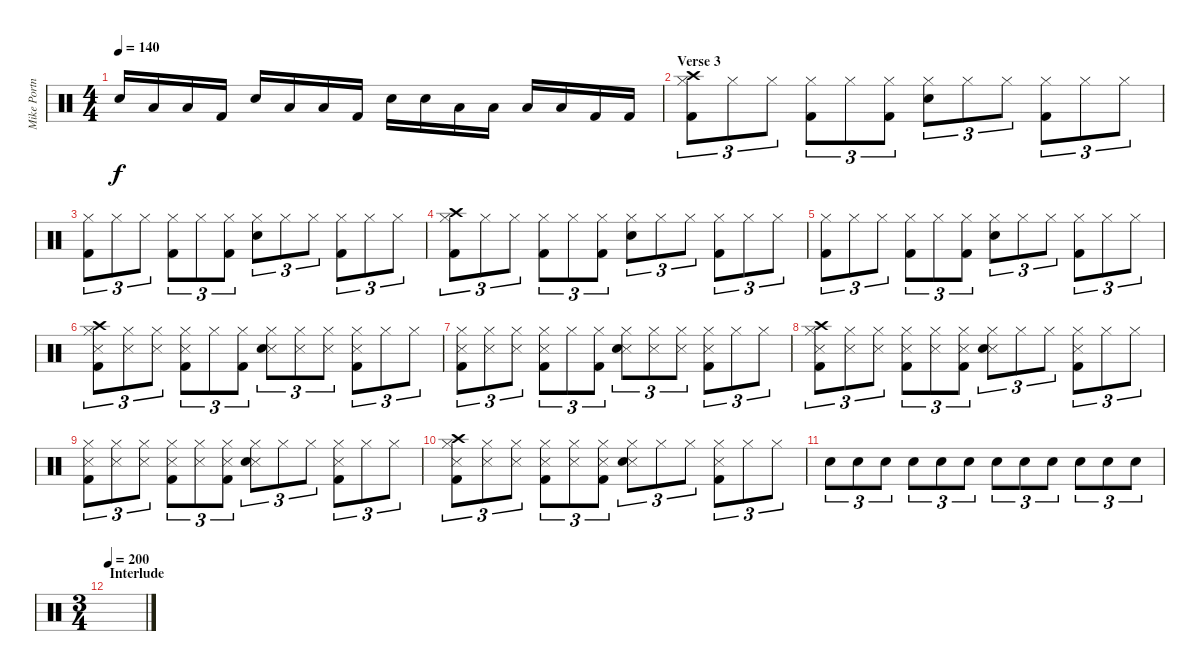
\track ("Mike Portnoy Drums/Percussion" "Mike Portn") {instrument percussion}
\staff {score}
\articulation defaults
\ts (4 4)
\tempo 140
\clef neutral
\ks c "Snare (hit) 2".16{dy f} "Low Tom (hit)".16 "Low Floor Tom (hit)".16 "Kick (hit) 2".16 "Snare (hit) 2".16 "Low Tom (hit)".16 "Low Floor Tom (hit)".16 "Kick (hit) 2".16 "Snare (hit) 2".16 "Snare (hit) 2".16 "Low Tom (hit)".16 "Low Tom (hit)".16 "Low Floor Tom (hit)".16 "Low Floor Tom (hit)".16 "Kick (hit) 2".16 "Kick (hit) 2".16
|
\section ("" "Verse 3")
("Crash high (hit)" "Hi-Hat (closed)" "Kick (hit) 2").8{tu (3 2)} "Hi-Hat (closed)".8{tu (3 2)} "Hi-Hat (closed)".8{tu (3 2)} ("Hi-Hat (closed)" "Kick (hit) 2").8{tu (3 2)} "Hi-Hat (closed)".8{tu (3 2)} ("Hi-Hat (closed)" "Kick (hit) 2").8{tu (3 2)} ("Hi-Hat (closed)" "Snare (hit) 2").8{tu (3 2)} "Hi-Hat (closed)".8{tu (3 2)} "Hi-Hat (closed)".8{tu (3 2)} ("Hi-Hat (closed)" "Kick (hit) 2").8{tu (3 2)} "Hi-Hat (closed)".8{tu (3 2)} "Hi-Hat (closed)".8{tu (3 2)} |
("Hi-Hat (closed)" "Kick (hit) 2").8{tu (3 2)} "Hi-Hat (closed)".8{tu (3 2)} "Hi-Hat (closed)".8{tu (3 2)} ("Hi-Hat (closed)" "Kick (hit) 2").8{tu (3 2)} "Hi-Hat (closed)".8{tu (3 2)} ("Hi-Hat (closed)" "Kick (hit) 2").8{tu (3 2)} ("Hi-Hat (closed)" "Snare (hit) 2").8{tu (3 2)} "Hi-Hat (closed)".8{tu (3 2)} "Hi-Hat (closed)".8{tu (3 2)} ("Hi-Hat (closed)" "Kick (hit) 2").8{tu (3 2)} "Hi-Hat (closed)".8{tu (3 2)} "Hi-Hat (closed)".8{tu (3 2)} |
("Crash high (hit)" "Hi-Hat (closed)" "Kick (hit) 2").8{tu (3 2)} "Hi-Hat (closed)".8{tu (3 2)} "Hi-Hat (closed)".8{tu (3 2)} ("Hi-Hat (closed)" "Kick (hit) 2").8{tu (3 2)} "Hi-Hat (closed)".8{tu (3 2)} ("Hi-Hat (closed)" "Kick (hit) 2").8{tu (3 2)} ("Hi-Hat (closed)" "Snare (hit) 2").8{tu (3 2)} "Hi-Hat (closed)".8{tu (3 2)} "Hi-Hat (closed)".8{tu (3 2)} ("Hi-Hat (closed)" "Kick (hit) 2").8{tu (3 2)} "Hi-Hat (closed)".8{tu (3 2)} "Hi-Hat (closed)".8{tu (3 2)} |
("Hi-Hat (closed)" "Kick (hit) 2").8{tu (3 2)} "Hi-Hat (closed)".8{tu (3 2)} "Hi-Hat (closed)".8{tu (3 2)} ("Hi-Hat (closed)" "Kick (hit) 2").8{tu (3 2)} "Hi-Hat (closed)".8{tu (3 2)} ("Hi-Hat (closed)" "Kick (hit) 2").8{tu (3 2)} ("Hi-Hat (closed)" "Snare (hit) 2").8{tu (3 2)} "Hi-Hat (closed)".8{tu (3 2)} "Hi-Hat (closed)".8{tu (3 2)} ("Hi-Hat (closed)" "Kick (hit) 2").8{tu (3 2)} "Hi-Hat (closed)".8{tu (3 2)} "Hi-Hat (closed)".8{tu (3 2)} |
("Crash high (hit)" "Hi-Hat (closed)" "Snare (side stick) 3" "Kick (hit) 2").8{tu (3 2)} ("Hi-Hat (closed)" "Snare (side stick) 3").8{tu (3 2)} ("Hi-Hat (closed)" "Snare (side stick) 3").8{tu (3 2)} ("Hi-Hat (closed)" "Snare (side stick) 3" "Kick (hit) 2").8{tu (3 2)} "Hi-Hat (closed)".8{tu (3 2)} ("Hi-Hat (closed)" "Kick (hit) 2").8{tu (3 2)} ("Hi-Hat (closed)" "Snare (side stick) 3" "Snare (hit) 2").8{tu (3 2)} ("Hi-Hat (closed)" "Snare (side stick) 3").8{tu (3 2)} ("Hi-Hat (closed)" "Snare (side stick) 3").8{tu (3 2)} ("Hi-Hat (closed)" "Snare (side stick) 3" "Kick (hit) 2").8{tu (3 2)} "Hi-Hat (closed)".8{tu (3 2)} "Hi-Hat (closed)".8{tu (3 2)} |
("Hi-Hat (closed)" "Snare (side stick) 3" "Kick (hit) 2").8{tu (3 2)} ("Hi-Hat (closed)" "Snare (side stick) 3").8{tu (3 2)} ("Hi-Hat (closed)" "Snare (side stick) 3").8{tu (3 2)} ("Hi-Hat (closed)" "Snare (side stick) 3" "Kick (hit) 2").8{tu (3 2)} "Hi-Hat (closed)".8{tu (3 2)} ("Hi-Hat (closed)" "Kick (hit) 2").8{tu (3 2)} ("Hi-Hat (closed)" "Snare (side stick) 3" "Snare (hit) 2").8{tu (3 2)} ("Hi-Hat (closed)" "Snare (side stick) 3").8{tu (3 2)} ("Hi-Hat (closed)" "Snare (side stick) 3").8{tu (3 2)} ("Hi-Hat (closed)" "Snare (side stick) 3" "Kick (hit) 2").8{tu (3 2)} "Hi-Hat (closed)".8{tu (3 2)} "Hi-Hat (closed)".8{tu (3 2)} |
("Crash high (hit)" "Hi-Hat (closed)" "Snare (side stick) 3" "Kick (hit) 2").8{tu (3 2)} ("Hi-Hat (closed)" "Snare (side stick) 3").8{tu (3 2)} ("Hi-Hat (closed)" "Snare (side stick) 3").8{tu (3 2)} ("Hi-Hat (closed)" "Snare (side stick) 3" "Kick (hit) 2").8{tu (3 2)} ("Hi-Hat (closed)" "Snare (side stick) 3").8{tu (3 2)} ("Hi-Hat (closed)" "Snare (side stick) 3" "Kick (hit) 2").8{tu (3 2)} ("Hi-Hat (closed)" "Snare (side stick) 3" "Snare (hit) 2").8{tu (3 2)} "Hi-Hat (closed)".8{tu (3 2)} "Hi-Hat (closed)".8{tu (3 2)} ("Hi-Hat (closed)" "Snare (side stick) 3" "Kick (hit) 2").8{tu (3 2)} "Hi-Hat (closed)".8{tu (3 2)} "Hi-Hat (closed)".8{tu (3 2)} |
("Hi-Hat (closed)" "Snare (side stick) 3" "Kick (hit) 2").8{tu (3 2)} ("Hi-Hat (closed)" "Snare (side stick) 3").8{tu (3 2)} ("Hi-Hat (closed)" "Snare (side stick) 3").8{tu (3 2)} ("Hi-Hat (closed)" "Snare (side stick) 3" "Kick (hit) 2").8{tu (3 2)} ("Hi-Hat (closed)" "Snare (side stick) 3").8{tu (3 2)} ("Hi-Hat (closed)" "Snare (side stick) 3" "Kick (hit) 2").8{tu (3 2)} ("Hi-Hat (closed)" "Snare (side stick) 3" "Snare (hit) 2").8{tu (3 2)} "Hi-Hat (closed)".8{tu (3 2)} "Hi-Hat (closed)".8{tu (3 2)} ("Hi-Hat (closed)" "Snare (side stick) 3" "Kick (hit) 2").8{tu (3 2)} "Hi-Hat (closed)".8{tu (3 2)} "Hi-Hat (closed)".8{tu (3 2)} |
("Crash high (hit)" "Hi-Hat (closed)" "Snare (side stick) 3" "Kick (hit) 2").8{tu (3 2)} ("Hi-Hat (closed)" "Snare (side stick) 3").8{tu (3 2)} ("Hi-Hat (closed)" "Snare (side stick) 3").8{tu (3 2)} ("Hi-Hat (closed)" "Snare (side stick) 3" "Kick (hit) 2").8{tu (3 2)} ("Hi-Hat (closed)" "Snare (side stick) 3").8{tu (3 2)} ("Hi-Hat (closed)" "Snare (side stick) 3" "Kick (hit) 2").8{tu (3 2)} ("Hi-Hat (closed)" "Snare (side stick) 3" "Snare (hit) 2").8{tu (3 2)} "Hi-Hat (closed)".8{tu (3 2)} "Hi-Hat (closed)".8{tu (3 2)} ("Hi-Hat (closed)" "Snare (side stick) 3" "Kick (hit) 2").8{tu (3 2)} "Hi-Hat (closed)".8{tu (3 2)} "Hi-Hat (closed)".8{tu (3 2)} |
"Snare (hit) 2".8{tu (3 2)} "Snare (hit) 2".8{tu (3 2)} "Snare (hit) 2".8{tu (3 2)} "Snare (hit) 2".8{tu (3 2)} "Snare (hit) 2".8{tu (3 2)} "Snare (hit) 2".8{tu (3 2)} "Snare (hit) 2".8{tu (3 2)} "Snare (hit) 2".8{tu (3 2)} "Snare (hit) 2".8{tu (3 2)} "Snare (hit) 2".8{tu (3 2)} "Snare (hit) 2".8{tu (3 2)} "Snare (hit) 2".8{tu (3 2)} |
\ts (3 4)
\section ("" "Interlude")
\tempo 200
